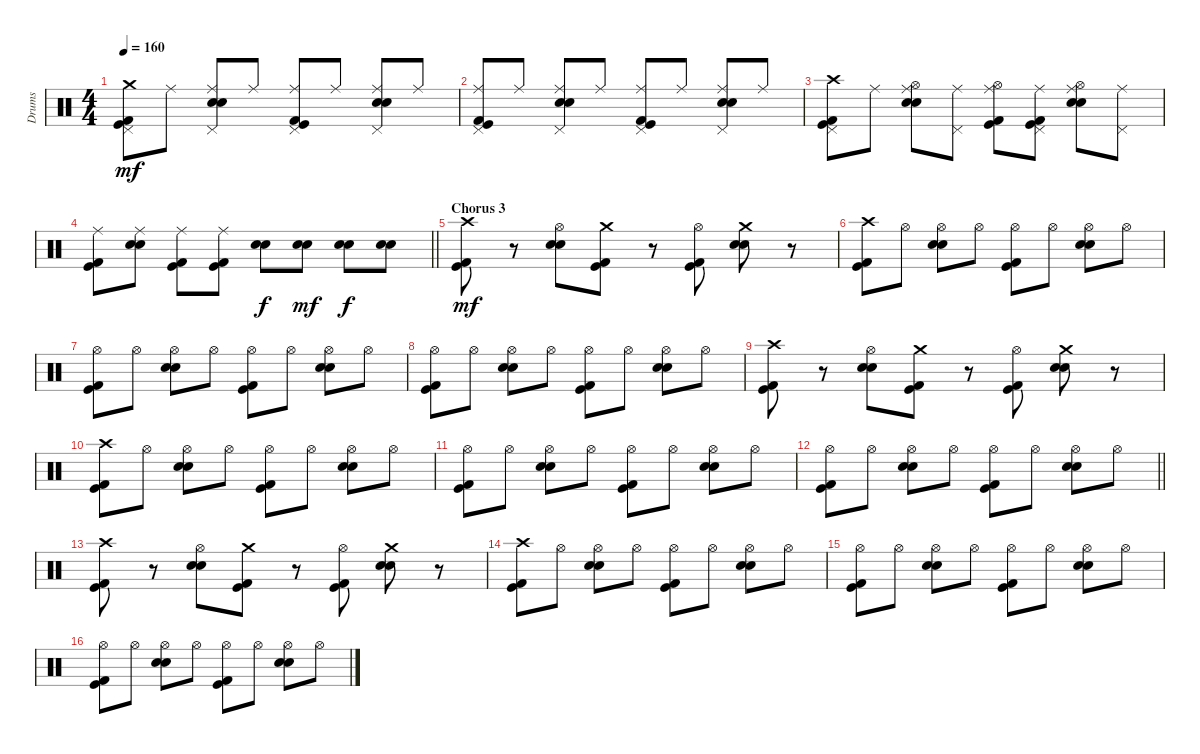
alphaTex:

\track ("Drums" "Drums") {instrument percussion}
\staff {score}
\articulation defaults
\ts (4 4)
\tempo 160
\clef neutral
\ks c
("Crash medium (hit)" "Pedal Hi-Hat (hit)" "Kick (hit) 2" "Kick (hit)").8{dy mf} "Ride (middle)".8 ("Ride (middle)" "Pedal Hi-Hat (hit)" "Snare (hit) 2" "Electric Snare (hit)").8 "Ride (middle)".8 ("Ride (middle)" "Pedal Hi-Hat (hit)" "Kick (hit) 2" "Kick (hit)").8 "Ride (middle)".8 ("Ride (middle)" "Pedal Hi-Hat (hit)" "Snare (hit) 2" "Electric Snare (hit)").8 "Ride (middle)".8 |
("Ride (middle)" "Pedal Hi-Hat (hit)" "Kick (hit) 2" "Kick (hit)").8 "Ride (middle)".8 ("Ride (middle)" "Pedal Hi-Hat (hit)" "Snare (hit) 2" "Electric Snare (hit)").8 "Ride (middle)".8 ("Ride (middle)" "Pedal Hi-Hat (hit)" "Kick (hit) 2" "Kick (hit)").8 "Ride (middle)".8 ("Ride (middle)" "Pedal Hi-Hat (hit)" "Snare (hit) 2" "Electric Snare (hit)").8 "Ride (middle)".8 |
("Crash high (hit)" "Pedal Hi-Hat (hit)" "Kick (hit) 2" "Kick (hit)").8 "Ride (middle)".8 ("Ride (middle)" "Hi-Hat (open)" "Snare (hit) 2" "Electric Snare (hit)").8 ("Ride (middle)" "Pedal Hi-Hat (hit)").8 ("Ride (middle)" "Hi-Hat (open)" "Kick (hit) 2" "Kick (hit)").8 ("Ride (middle)" "Pedal Hi-Hat (hit)" "Kick (hit) 2" "Kick (hit)").8 ("Ride (middle)" "Hi-Hat (open)" "Snare (hit) 2" "Electric Snare (hit)").8 ("Ride (middle)" "Pedal Hi-Hat (hit)").8 |
\barLineRight lightlight
("Ride (middle)" "Kick (hit) 2" "Kick (hit)").8 ("Ride (middle)" "Snare (hit) 2" "Electric Snare (hit)").8 ("Ride (middle)" "Kick (hit) 2" "Kick (hit)").8 ("Ride (middle)" "Kick (hit) 2" "Kick (hit)").8 ("Snare (hit) 2" "Electric Snare (hit)").8{dy f} ("Snare (hit) 2" "Electric Snare (hit)").8{dy mf} ("Snare (hit) 2" "Electric Snare (hit)").8{dy f} ("Snare (hit) 2" "Electric Snare (hit)").8 |
\section ("" "Chorus 3")
("Crash high (hit)" "Kick (hit) 2" "Kick (hit)").8{dy mf} r.8 ("Hi-Hat (open)" "Snare (hit) 2" "Electric Snare (hit)").8 ("Crash medium (hit)" "Kick (hit) 2" "Kick (hit)").8 r.8 ("Hi-Hat (open)" "Kick (hit) 2" "Kick (hit)").8 ("Crash medium (hit)" "Snare (hit) 2" "Electric Snare (hit)").8 r.8 |
("Crash high (hit)" "Kick (hit) 2" "Kick (hit)").8 "Hi-Hat (open)".8 ("Hi-Hat (open)" "Snare (hit) 2" "Electric Snare (hit)").8 "Hi-Hat (open)".8 ("Hi-Hat (open)" "Kick (hit) 2" "Kick (hit)").8 "Hi-Hat (open)".8 ("Hi-Hat (open)" "Snare (hit) 2" "Electric Snare (hit)").8 "Hi-Hat (open)".8 |
("Hi-Hat (open)" "Kick (hit) 2" "Kick (hit)").8 "Hi-Hat (open)".8 ("Hi-Hat (open)" "Snare (hit) 2" "Electric Snare (hit)").8 "Hi-Hat (open)".8 ("Hi-Hat (open)" "Kick (hit) 2" "Kick (hit)").8 "Hi-Hat (open)".8 ("Hi-Hat (open)" "Snare (hit) 2" "Electric Snare (hit)").8 "Hi-Hat (open)".8 |
("Hi-Hat (open)" "Kick (hit) 2" "Kick (hit)").8 "Hi-Hat (open)".8 ("Hi-Hat (open)" "Snare (hit) 2" "Electric Snare (hit)").8 "Hi-Hat (open)".8 ("Hi-Hat (open)" "Kick (hit) 2" "Kick (hit)").8 "Hi-Hat (open)".8 ("Hi-Hat (open)" "Snare (hit) 2" "Electric Snare (hit)").8 "Hi-Hat (open)".8 |
("Crash high (hit)" "Kick (hit) 2" "Kick (hit)").8 r.8 ("Hi-Hat (open)" "Snare (hit) 2" "Electric Snare (hit)").8 ("Crash medium (hit)" "Kick (hit) 2" "Kick (hit)").8 r.8 ("Hi-Hat (open)" "Kick (hit) 2" "Kick (hit)").8 ("Crash medium (hit)" "Snare (hit) 2" "Electric Snare (hit)").8 r.8 |
("Crash high (hit)" "Kick (hit) 2" "Kick (hit)").8 "Hi-Hat (open)".8 ("Hi-Hat (open)" "Snare (hit) 2" "Electric Snare (hit)").8 "Hi-Hat (open)".8 ("Hi-Hat (open)" "Kick (hit) 2" "Kick (hit)").8 "Hi-Hat (open)".8 ("Hi-Hat (open)" "Snare (hit) 2" "Electric Snare (hit)").8 "Hi-Hat (open)".8 |
("Hi-Hat (open)" "Kick (hit) 2" "Kick (hit)").8 "Hi-Hat (open)".8 ("Hi-Hat (open)" "Snare (hit) 2" "Electric Snare (hit)").8 "Hi-Hat (open)".8 ("Hi-Hat (open)" "Kick (hit) 2" "Kick (hit)").8 "Hi-Hat (open)".8 ("Hi-Hat (open)" "Snare (hit) 2" "Electric Snare (hit)").8 "Hi-Hat (open)".8 |
\barLineRight lightlight
("Hi-Hat (open)" "Kick (hit) 2" "Kick (hit)").8 "Hi-Hat (open)".8 ("Hi-Hat (open)" "Snare (hit) 2" "Electric Snare (hit)").8 "Hi-Hat (open)".8 ("Hi-Hat (open)" "Kick (hit) 2" "Kick (hit)").8 "Hi-Hat (open)".8 ("Hi-Hat (open)" "Snare (hit) 2" "Electric Snare (hit)").8 "Hi-Hat (open)".8 |
("Crash high (hit)" "Kick (hit) 2" "Kick (hit)").8 r.8 ("Hi-Hat (open)" "Snare (hit) 2" "Electric Snare (hit)").8 ("Crash medium (hit)" "Kick (hit) 2" "Kick (hit)").8 r.8 ("Hi-Hat (open)" "Kick (hit) 2" "Kick (hit)").8 ("Crash medium (hit)" "Snare (hit) 2" "Electric Snare (hit)").8 r.8 |
("Crash high (hit)" "Kick (hit) 2" "Kick (hit)").8 "Hi-Hat (open)".8 ("Hi-Hat (open)" "Snare (hit) 2" "Electric Snare (hit)").8 "Hi-Hat (open)".8 ("Hi-Hat (open)" "Kick (hit) 2" "Kick (hit)").8 "Hi-Hat (open)".8 ("Hi-Hat (open)" "Snare (hit) 2" "Electric Snare (hit)").8 "Hi-Hat (open)".8 |
("Hi-Hat (open)" "Kick (hit) 2" "Kick (hit)").8 "Hi-Hat (open)".8 ("Hi-Hat (open)" "Snare (hit) 2" "Electric Snare (hit)").8 "Hi-Hat (open)".8 ("Hi-Hat (open)" "Kick (hit) 2" "Kick (hit)").8 "Hi-Hat (open)".8 ("Hi-Hat (open)" "Snare (hit) 2" "Electric Snare (hit)").8 "Hi-Hat (open)".8 |
("Hi-Hat (open)" "Kick (hit) 2" "Kick (hit)").8 "Hi-Hat (open)".8 ("Hi-Hat (open)" "Snare (hit) 2" "Electric Snare (hit)").8 "Hi-Hat (open)".8 ("Hi-Hat (open)" "Kick (hit) 2" "Kick (hit)").8 "Hi-Hat (open)".8 ("Hi-Hat (open)" "Snare (hit) 2" "Electric Snare (hit)").8 "Hi-Hat (open)".8
